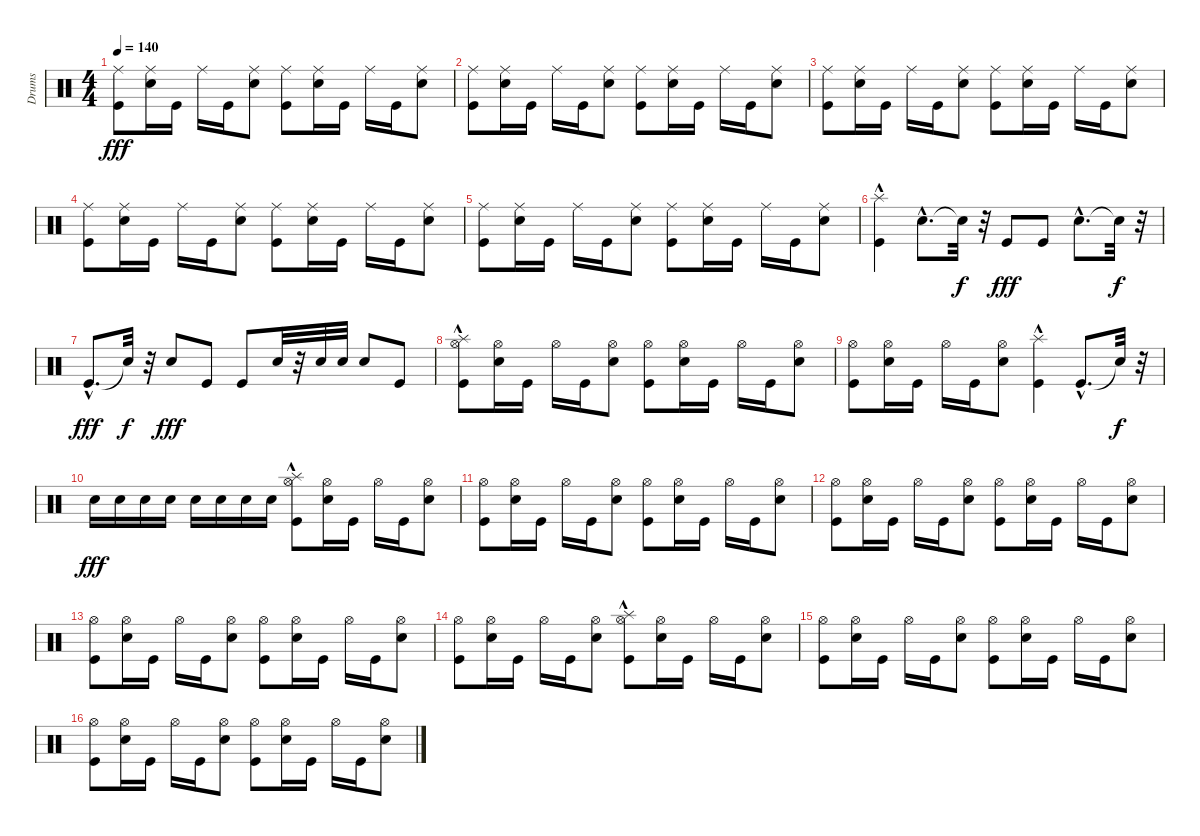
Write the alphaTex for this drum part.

\track ("Drums" "Drums") {instrument percussion}
\staff {score}
\articulation defaults
\ts (4 4)
\tempo 140
\clef neutral
\ks c
("Kick (hit)" "Ride (middle)").8{dy fff} ("Electric Snare (hit)" "Ride (middle)").16 "Kick (hit)".16 "Ride (middle)".16 "Kick (hit)".16 ("Electric Snare (hit)" "Ride (middle)").8 ("Ride (middle)" "Kick (hit)").8 ("Electric Snare (hit)" "Ride (middle)").16 "Kick (hit)".16 "Ride (middle)".16 "Kick (hit)".16 ("Ride (middle)" "Electric Snare (hit)").8 |
("Ride (middle)" "Kick (hit)").8 ("Ride (middle)" "Electric Snare (hit)").16 "Kick (hit)".16 "Ride (middle)".16 "Kick (hit)".16 ("Electric Snare (hit)" "Ride (middle)").8 ("Kick (hit)" "Ride (middle)").8 ("Electric Snare (hit)" "Ride (middle)").16 "Kick (hit)".16 "Ride (middle)".16 "Kick (hit)".16 ("Ride (middle)" "Electric Snare (hit)").8 |
("Ride (middle)" "Kick (hit)").8 ("Ride (middle)" "Electric Snare (hit)").16 "Kick (hit)".16 "Ride (middle)".16 "Kick (hit)".16 ("Ride (middle)" "Electric Snare (hit)").8 ("Kick (hit)" "Ride (middle)").8 ("Ride (middle)" "Electric Snare (hit)").16 "Kick (hit)".16 "Ride (middle)".16 "Kick (hit)".16 ("Ride (middle)" "Electric Snare (hit)").8 |
("Kick (hit)" "Ride (middle)").8 ("Ride (middle)" "Electric Snare (hit)").16 "Kick (hit)".16 "Ride (middle)".16 "Kick (hit)".16 ("Ride (middle)" "Electric Snare (hit)").8 ("Ride (middle)" "Kick (hit)").8 ("Ride (middle)" "Electric Snare (hit)").16 "Kick (hit)".16 "Ride (middle)".16 "Kick (hit)".16 ("Electric Snare (hit)" "Ride (middle)").8 |
("Ride (middle)" "Kick (hit)").8 ("Ride (middle)" "Electric Snare (hit)").16 "Kick (hit)".16 "Ride (middle)".16 "Kick (hit)".16 ("Electric Snare (hit)" "Ride (middle)").8 ("Kick (hit)" "Ride (middle)").8 ("Ride (middle)" "Electric Snare (hit)").16 "Kick (hit)".16 "Ride (middle)".16 "Kick (hit)".16 ("Ride (middle)" "Electric Snare (hit)").8 |
("Splash (hit)"{hac} "Kick (hit)"{hac}).4 "Electric Snare (hit)"{hac}.8{d} "Snare (hit)"{t}.32{dy f} r.32 "Kick (hit)".8{dy fff} "Kick (hit)".8 "Electric Snare (hit)"{hac}.8{d} "Snare (hit)"{t}.32{dy f} r.32 |
"Kick (hit)"{hac}.8{d dy fff} "Snare (hit)"{t}.32{dy f} r.32 "Electric Snare (hit)".8{dy fff} "Kick (hit)".8 "Kick (hit)".8 "Electric Snare (hit)".32 r.32 "Electric Snare (hit)".32 "Electric Snare (hit)".32 "Electric Snare (hit)".8 "Kick (hit)".8 |
("Kick (hit)" "Hi-Hat (open)" "Splash (hit)"{hac}).8 ("Electric Snare (hit)" "Hi-Hat (open)").16 "Kick (hit)".16 "Hi-Hat (open)".16 "Kick (hit)".16 ("Hi-Hat (open)" "Electric Snare (hit)").8 ("Kick (hit)" "Hi-Hat (open)").8 ("Hi-Hat (open)" "Electric Snare (hit)").16 "Kick (hit)".16 "Hi-Hat (open)".16 "Kick (hit)".16 ("Electric Snare (hit)" "Hi-Hat (open)").8 |
("Hi-Hat (open)" "Kick (hit)").8 ("Electric Snare (hit)" "Hi-Hat (open)").16 "Kick (hit)".16 "Hi-Hat (open)".16 "Kick (hit)".16 ("Hi-Hat (open)" "Electric Snare (hit)").8 ("Kick (hit)"{hac} "Splash (hit)"{hac}).4 "Kick (hit)"{hac}.8{d} "Snare (hit)"{t}.32{dy f} r.32 |
"Electric Snare (hit)".16{dy fff} "Electric Snare (hit)".16 "Electric Snare (hit)".16 "Electric Snare (hit)".16 "Electric Snare (hit)".16 "Electric Snare (hit)".16 "Electric Snare (hit)".16 "Electric Snare (hit)".16 ("Splash (hit)"{hac} "Kick (hit)" "Hi-Hat (open)").8 ("Hi-Hat (open)" "Electric Snare (hit)").16 "Kick (hit)".16 "Hi-Hat (open)".16 "Kick (hit)".16 ("Hi-Hat (open)" "Electric Snare (hit)").8 |
("Kick (hit)" "Hi-Hat (open)").8 ("Hi-Hat (open)" "Electric Snare (hit)").16 "Kick (hit)".16 "Hi-Hat (open)".16 "Kick (hit)".16 ("Electric Snare (hit)" "Hi-Hat (open)").8 ("Hi-Hat (open)" "Kick (hit)").8 ("Electric Snare (hit)" "Hi-Hat (open)").16 "Kick (hit)".16 "Hi-Hat (open)".16 "Kick (hit)".16 ("Hi-Hat (open)" "Electric Snare (hit)").8 |
("Kick (hit)" "Hi-Hat (open)").8 ("Electric Snare (hit)" "Hi-Hat (open)").16 "Kick (hit)".16 "Hi-Hat (open)".16 "Kick (hit)".16 ("Hi-Hat (open)" "Electric Snare (hit)").8 ("Hi-Hat (open)" "Kick (hit)").8 ("Electric Snare (hit)" "Hi-Hat (open)").16 "Kick (hit)".16 "Hi-Hat (open)".16 "Kick (hit)".16 ("Electric Snare (hit)" "Hi-Hat (open)").8 |
("Hi-Hat (open)" "Kick (hit)").8 ("Electric Snare (hit)" "Hi-Hat (open)").16 "Kick (hit)".16 "Hi-Hat (open)".16 "Kick (hit)".16 ("Electric Snare (hit)" "Hi-Hat (open)").8 ("Kick (hit)" "Hi-Hat (open)").8 ("Electric Snare (hit)" "Hi-Hat (open)").16 "Kick (hit)".16 "Hi-Hat (open)".16 "Kick (hit)".16 ("Hi-Hat (open)" "Electric Snare (hit)").8 |
("Kick (hit)" "Hi-Hat (open)").8 ("Electric Snare (hit)" "Hi-Hat (open)").16 "Kick (hit)".16 "Hi-Hat (open)".16 "Kick (hit)".16 ("Hi-Hat (open)" "Electric Snare (hit)").8 ("Kick (hit)" "Splash (hit)"{hac} "Hi-Hat (open)").8 ("Hi-Hat (open)" "Electric Snare (hit)").16 "Kick (hit)".16 "Hi-Hat (open)".16 "Kick (hit)".16 ("Electric Snare (hit)" "Hi-Hat (open)").8 |
("Kick (hit)" "Hi-Hat (open)").8 ("Hi-Hat (open)" "Electric Snare (hit)").16 "Kick (hit)".16 "Hi-Hat (open)".16 "Kick (hit)".16 ("Hi-Hat (open)" "Electric Snare (hit)").8 ("Kick (hit)" "Hi-Hat (open)").8 ("Hi-Hat (open)" "Electric Snare (hit)").16 "Kick (hit)".16 "Hi-Hat (open)".16 "Kick (hit)".16 ("Electric Snare (hit)" "Hi-Hat (open)").8 |
("Kick (hit)" "Hi-Hat (open)").8 ("Hi-Hat (open)" "Electric Snare (hit)").16 "Kick (hit)".16 "Hi-Hat (open)".16 "Kick (hit)".16 ("Hi-Hat (open)" "Electric Snare (hit)").8 ("Kick (hit)" "Hi-Hat (open)").8 ("Hi-Hat (open)" "Electric Snare (hit)").16 "Kick (hit)".16 "Hi-Hat (open)".16 "Kick (hit)".16 ("Hi-Hat (open)" "Electric Snare (hit)").8
